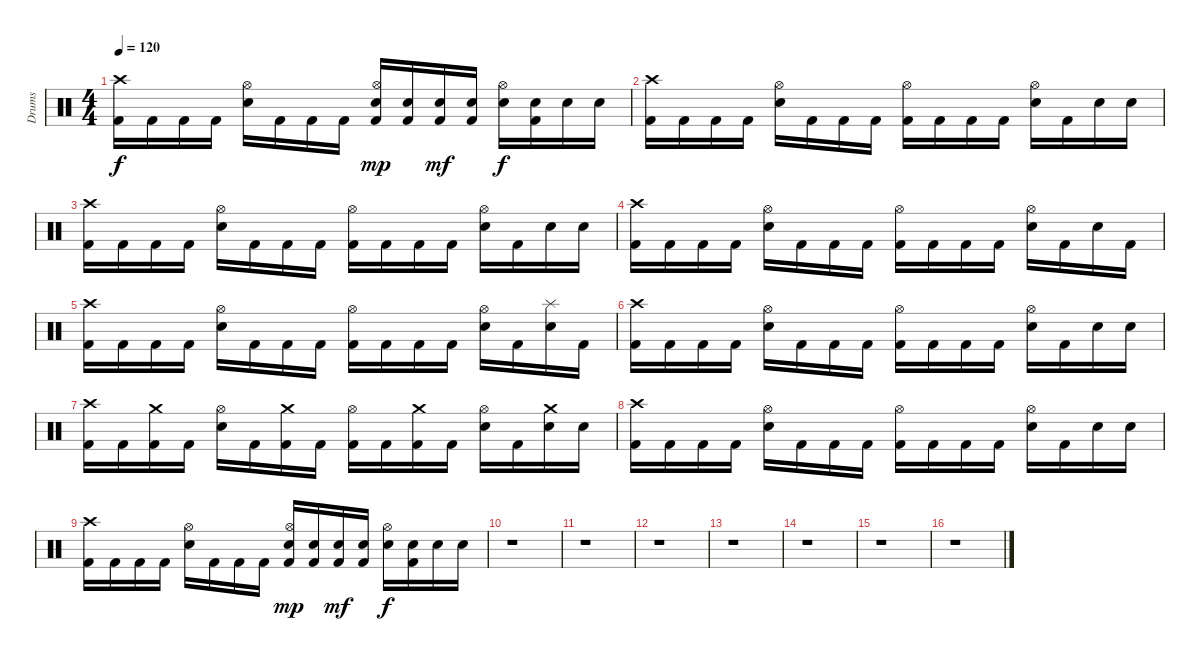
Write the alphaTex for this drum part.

\track ("Drums" "Drums") {instrument percussion}
\staff {score}
\articulation defaults
\ts (4 4)
\tempo 120
\clef neutral
\ks c
("Crash high (hit)" "Kick (hit) 2").16{dy f} "Kick (hit) 2".16 "Kick (hit) 2".16 "Kick (hit) 2".16 ("Hi-Hat (open)" "Electric Snare (hit)").16 "Kick (hit) 2".16 "Kick (hit) 2".16 "Kick (hit) 2".16 ("Hi-Hat (open)" "Electric Snare (hit)" "Kick (hit) 2").16{dy mp} ("Electric Snare (hit)" "Kick (hit) 2").16 ("Electric Snare (hit)" "Kick (hit) 2").16{dy mf} ("Electric Snare (hit)" "Kick (hit) 2").16 ("Hi-Hat (open)" "Electric Snare (hit)").16{dy f} ("Electric Snare (hit)" "Kick (hit) 2").16 "Electric Snare (hit)".16 "Electric Snare (hit)".16 |
("Crash high (hit)" "Kick (hit) 2").16 "Kick (hit) 2".16 "Kick (hit) 2".16 "Kick (hit) 2".16 ("Hi-Hat (open)" "Electric Snare (hit)").16 "Kick (hit) 2".16 "Kick (hit) 2".16 "Kick (hit) 2".16 ("Hi-Hat (open)" "Kick (hit) 2").16 "Kick (hit) 2".16 "Kick (hit) 2".16 "Kick (hit) 2".16 ("Hi-Hat (open)" "Electric Snare (hit)").16 "Kick (hit) 2".16 "Electric Snare (hit)".16 "Electric Snare (hit)".16 |
("Crash high (hit)" "Kick (hit) 2").16 "Kick (hit) 2".16 "Kick (hit) 2".16 "Kick (hit) 2".16 ("Hi-Hat (open)" "Electric Snare (hit)").16 "Kick (hit) 2".16 "Kick (hit) 2".16 "Kick (hit) 2".16 ("Hi-Hat (open)" "Kick (hit) 2").16 "Kick (hit) 2".16 "Kick (hit) 2".16 "Kick (hit) 2".16 ("Hi-Hat (open)" "Electric Snare (hit)").16 "Kick (hit) 2".16 "Electric Snare (hit)".16 "Electric Snare (hit)".16 |
("Crash high (hit)" "Kick (hit) 2").16 "Kick (hit) 2".16 "Kick (hit) 2".16 "Kick (hit) 2".16 ("Hi-Hat (open)" "Electric Snare (hit)").16 "Kick (hit) 2".16 "Kick (hit) 2".16 "Kick (hit) 2".16 ("Hi-Hat (open)" "Kick (hit) 2").16 "Kick (hit) 2".16 "Kick (hit) 2".16 "Kick (hit) 2".16 ("Hi-Hat (open)" "Electric Snare (hit)").16 "Kick (hit) 2".16 "Electric Snare (hit)".16 "Kick (hit) 2".16 |
("Crash high (hit)" "Kick (hit) 2").16 "Kick (hit) 2".16 "Kick (hit) 2".16 "Kick (hit) 2".16 ("Hi-Hat (open)" "Electric Snare (hit)").16 "Kick (hit) 2".16 "Kick (hit) 2".16 "Kick (hit) 2".16 ("Hi-Hat (open)" "Kick (hit) 2").16 "Kick (hit) 2".16 "Kick (hit) 2".16 "Kick (hit) 2".16 ("Hi-Hat (open)" "Electric Snare (hit)").16 "Kick (hit) 2".16 ("Splash (hit)" "Electric Snare (hit)").16 "Kick (hit) 2".16 |
("Crash high (hit)" "Kick (hit) 2").16 "Kick (hit) 2".16 "Kick (hit) 2".16 "Kick (hit) 2".16 ("Hi-Hat (open)" "Electric Snare (hit)").16 "Kick (hit) 2".16 "Kick (hit) 2".16 "Kick (hit) 2".16 ("Hi-Hat (open)" "Kick (hit) 2").16 "Kick (hit) 2".16 "Kick (hit) 2".16 "Kick (hit) 2".16 ("Hi-Hat (open)" "Electric Snare (hit)").16 "Kick (hit) 2".16 "Electric Snare (hit)".16 "Electric Snare (hit)".16 |
("Crash high (hit)" "Kick (hit) 2").16 "Kick (hit) 2".16 ("Crash medium (hit)" "Kick (hit) 2").16 "Kick (hit) 2".16 ("Hi-Hat (open)" "Electric Snare (hit)").16 "Kick (hit) 2".16 ("Crash medium (hit)" "Kick (hit) 2").16 "Kick (hit) 2".16 ("Hi-Hat (open)" "Kick (hit) 2").16 "Kick (hit) 2".16 ("Crash medium (hit)" "Kick (hit) 2").16 "Kick (hit) 2".16 ("Hi-Hat (open)" "Electric Snare (hit)").16 "Kick (hit) 2".16 ("Crash medium (hit)" "Electric Snare (hit)").16 "Electric Snare (hit)".16 |
("Crash high (hit)" "Kick (hit) 2").16 "Kick (hit) 2".16 "Kick (hit) 2".16 "Kick (hit) 2".16 ("Hi-Hat (open)" "Electric Snare (hit)").16 "Kick (hit) 2".16 "Kick (hit) 2".16 "Kick (hit) 2".16 ("Hi-Hat (open)" "Kick (hit) 2").16 "Kick (hit) 2".16 "Kick (hit) 2".16 "Kick (hit) 2".16 ("Hi-Hat (open)" "Electric Snare (hit)").16 "Kick (hit) 2".16 "Electric Snare (hit)".16 "Electric Snare (hit)".16 |
("Crash high (hit)" "Kick (hit) 2").16 "Kick (hit) 2".16 "Kick (hit) 2".16 "Kick (hit) 2".16 ("Hi-Hat (open)" "Electric Snare (hit)").16 "Kick (hit) 2".16 "Kick (hit) 2".16 "Kick (hit) 2".16 ("Hi-Hat (open)" "Electric Snare (hit)" "Kick (hit) 2").16{dy mp} ("Electric Snare (hit)" "Kick (hit) 2").16 ("Electric Snare (hit)" "Kick (hit) 2").16{dy mf} ("Electric Snare (hit)" "Kick (hit) 2").16 ("Hi-Hat (open)" "Electric Snare (hit)").16{dy f} ("Electric Snare (hit)" "Kick (hit) 2").16 "Electric Snare (hit)".16 "Electric Snare (hit)".16 |
r.1 |
r.1 |
r.1 |
r.1 |
r.1 |
r.1 |
r.1
